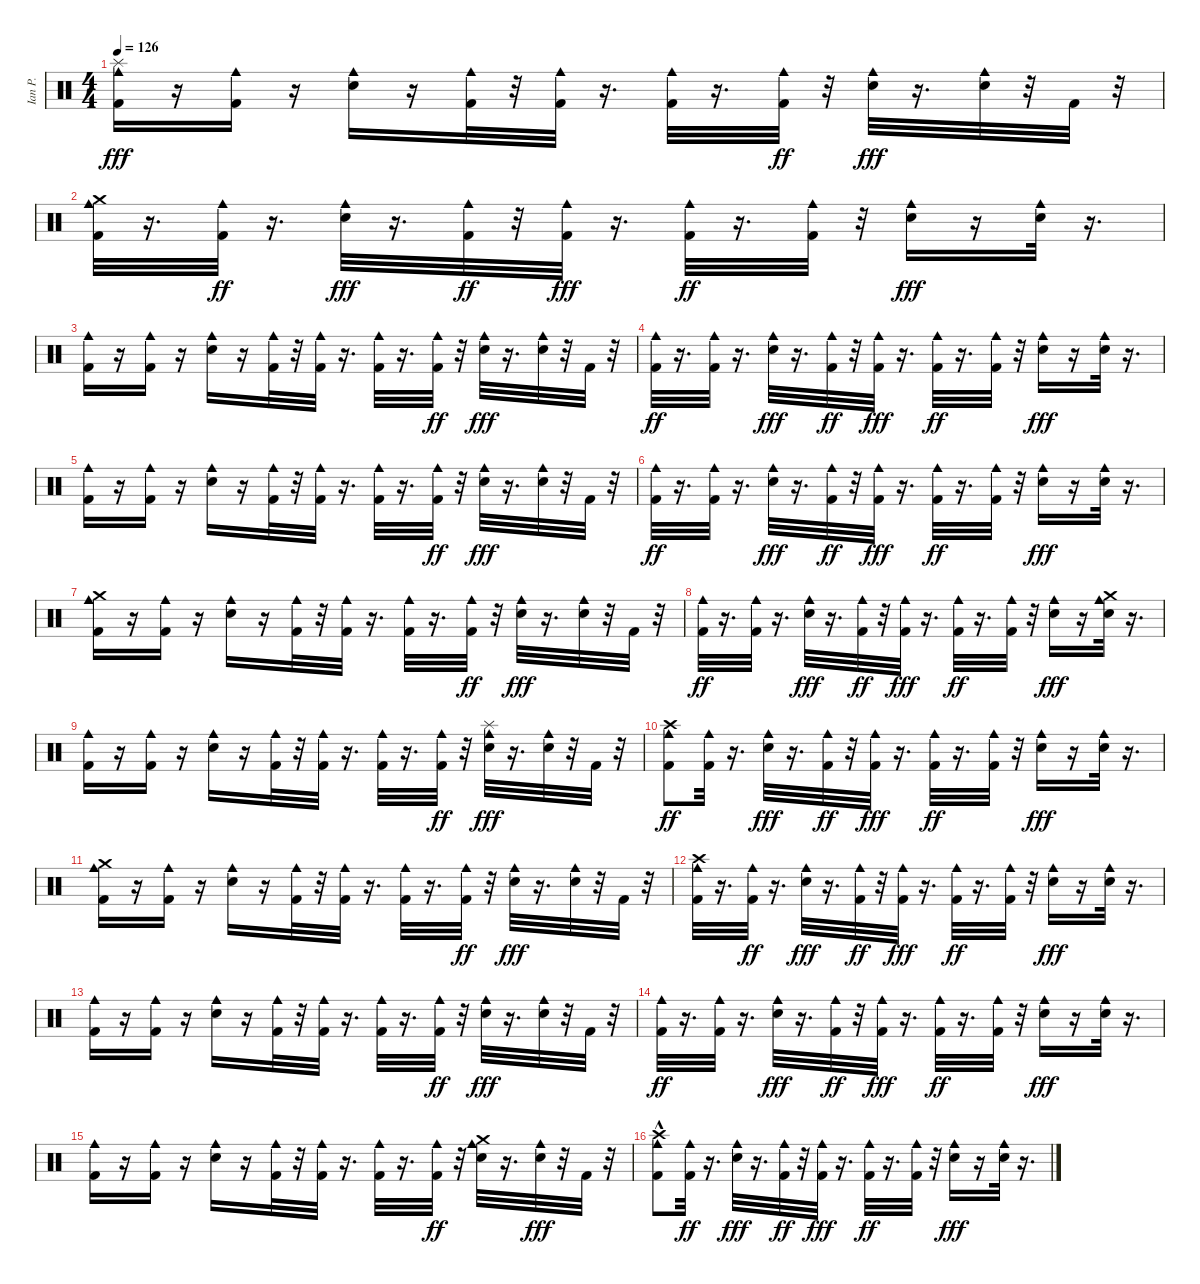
\track ("Ian P." "Ian P.") {instrument percussion}
\staff {score}
\articulation defaults
\ts (4 4)
\tempo 126
\clef neutral
\ks c
("Cowbell medium (hit)" "Splash (hit)" "Kick (hit) 2").16{dy fff} r.16 ("Cowbell medium (hit)" "Kick (hit) 2").16 r.16 ("Cowbell medium (hit)" "Snare (hit) 2").16 r.16 ("Cowbell medium (hit)" "Kick (hit) 2").32 r.32 ("Cowbell medium (hit)" "Kick (hit) 2").32 r.16{d} ("Kick (hit) 2" "Cowbell medium (hit)").32 r.16{d} ("Kick (hit) 2" "Cowbell medium (hit)").32{dy ff} r.32 ("Snare (hit) 2" "Cowbell medium (hit)").32{dy fff} r.16{d} ("Snare (hit) 2" "Cowbell medium (hit)").32 r.32 "Kick (hit) 2".32 r.32 |
("Kick (hit) 2" "Cowbell medium (hit)" "Crash medium (hit)").32 r.16{d} ("Kick (hit) 2" "Cowbell medium (hit)").32{dy ff} r.16{d} ("Cowbell medium (hit)" "Snare (hit) 2").32{dy fff} r.16{d} ("Cowbell medium (hit)" "Kick (hit) 2").32{dy ff} r.32 ("Cowbell medium (hit)" "Kick (hit) 2").32{dy fff} r.16{d} ("Kick (hit) 2" "Cowbell medium (hit)").32{dy ff} r.16{d} ("Cowbell medium (hit)" "Kick (hit) 2").32 r.32 ("Cowbell medium (hit)" "Snare (hit) 2").16{dy fff} r.16 ("Cowbell medium (hit)" "Snare (hit) 2").32 r.16{d} |
("Cowbell medium (hit)" "Kick (hit) 2").16 r.16 ("Cowbell medium (hit)" "Kick (hit) 2").16 r.16 ("Cowbell medium (hit)" "Snare (hit) 2").16 r.16 ("Cowbell medium (hit)" "Kick (hit) 2").32 r.32 ("Cowbell medium (hit)" "Kick (hit) 2").32 r.16{d} ("Kick (hit) 2" "Cowbell medium (hit)").32 r.16{d} ("Kick (hit) 2" "Cowbell medium (hit)").32{dy ff} r.32 ("Snare (hit) 2" "Cowbell medium (hit)").32{dy fff} r.16{d} ("Snare (hit) 2" "Cowbell medium (hit)").32 r.32 "Kick (hit) 2".32 r.32 |
("Kick (hit) 2" "Cowbell medium (hit)").32{dy ff} r.16{d} ("Kick (hit) 2" "Cowbell medium (hit)").32 r.16{d} ("Cowbell medium (hit)" "Snare (hit) 2").32{dy fff} r.16{d} ("Cowbell medium (hit)" "Kick (hit) 2").32{dy ff} r.32 ("Cowbell medium (hit)" "Kick (hit) 2").32{dy fff} r.16{d} ("Kick (hit) 2" "Cowbell medium (hit)").32{dy ff} r.16{d} ("Cowbell medium (hit)" "Kick (hit) 2").32 r.32 ("Cowbell medium (hit)" "Snare (hit) 2").16{dy fff} r.16 ("Cowbell medium (hit)" "Snare (hit) 2").32 r.16{d} |
("Cowbell medium (hit)" "Kick (hit) 2").16 r.16 ("Cowbell medium (hit)" "Kick (hit) 2").16 r.16 ("Cowbell medium (hit)" "Snare (hit) 2").16 r.16 ("Cowbell medium (hit)" "Kick (hit) 2").32 r.32 ("Cowbell medium (hit)" "Kick (hit) 2").32 r.16{d} ("Kick (hit) 2" "Cowbell medium (hit)").32 r.16{d} ("Kick (hit) 2" "Cowbell medium (hit)").32{dy ff} r.32 ("Snare (hit) 2" "Cowbell medium (hit)").32{dy fff} r.16{d} ("Snare (hit) 2" "Cowbell medium (hit)").32 r.32 "Kick (hit) 2".32 r.32 |
("Kick (hit) 2" "Cowbell medium (hit)").32{dy ff} r.16{d} ("Kick (hit) 2" "Cowbell medium (hit)").32 r.16{d} ("Cowbell medium (hit)" "Snare (hit) 2").32{dy fff} r.16{d} ("Cowbell medium (hit)" "Kick (hit) 2").32{dy ff} r.32 ("Cowbell medium (hit)" "Kick (hit) 2").32{dy fff} r.16{d} ("Kick (hit) 2" "Cowbell medium (hit)").32{dy ff} r.16{d} ("Cowbell medium (hit)" "Kick (hit) 2").32 r.32 ("Cowbell medium (hit)" "Snare (hit) 2").16{dy fff} r.16 ("Cowbell medium (hit)" "Snare (hit) 2").32 r.16{d} |
("Cowbell medium (hit)" "Crash medium (hit)" "Kick (hit) 2").16 r.16 ("Cowbell medium (hit)" "Kick (hit) 2").16 r.16 ("Cowbell medium (hit)" "Snare (hit) 2").16 r.16 ("Cowbell medium (hit)" "Kick (hit) 2").32 r.32 ("Cowbell medium (hit)" "Kick (hit) 2").32 r.16{d} ("Kick (hit) 2" "Cowbell medium (hit)").32 r.16{d} ("Kick (hit) 2" "Cowbell medium (hit)").32{dy ff} r.32 ("Snare (hit) 2" "Cowbell medium (hit)").32{dy fff} r.16{d} ("Snare (hit) 2" "Cowbell medium (hit)").32 r.32 "Kick (hit) 2".32 r.32 |
("Kick (hit) 2" "Cowbell medium (hit)").32{dy ff} r.16{d} ("Kick (hit) 2" "Cowbell medium (hit)").32 r.16{d} ("Cowbell medium (hit)" "Snare (hit) 2").32{dy fff} r.16{d} ("Cowbell medium (hit)" "Kick (hit) 2").32{dy ff} r.32 ("Cowbell medium (hit)" "Kick (hit) 2").32{dy fff} r.16{d} ("Kick (hit) 2" "Cowbell medium (hit)").32{dy ff} r.16{d} ("Cowbell medium (hit)" "Kick (hit) 2").32 r.32 ("Cowbell medium (hit)" "Snare (hit) 2").16{dy fff} r.16 ("Crash medium (hit)" "Cowbell medium (hit)" "Snare (hit) 2").32 r.16{d} |
("Cowbell medium (hit)" "Kick (hit) 2").16 r.16 ("Cowbell medium (hit)" "Kick (hit) 2").16 r.16 ("Cowbell medium (hit)" "Snare (hit) 2").16 r.16 ("Cowbell medium (hit)" "Kick (hit) 2").32 r.32 ("Cowbell medium (hit)" "Kick (hit) 2").32 r.16{d} ("Kick (hit) 2" "Cowbell medium (hit)").32 r.16{d} ("Kick (hit) 2" "Cowbell medium (hit)").32{dy ff} r.32 ("Snare (hit) 2" "Cowbell medium (hit)" "Splash (hit)").32{dy fff} r.16{d} ("Snare (hit) 2" "Cowbell medium (hit)").32 r.32 "Kick (hit) 2".32 r.32 |
("Kick (hit) 2" "Crash high (hit)" "Cowbell medium (hit)").8{dy ff} ("Kick (hit) 2" "Cowbell medium (hit)").32 r.16{d} ("Cowbell medium (hit)" "Snare (hit) 2").32{dy fff} r.16{d} ("Cowbell medium (hit)" "Kick (hit) 2").32{dy ff} r.32 ("Cowbell medium (hit)" "Kick (hit) 2").32{dy fff} r.16{d} ("Kick (hit) 2" "Cowbell medium (hit)").32{dy ff} r.16{d} ("Cowbell medium (hit)" "Kick (hit) 2").32 r.32 ("Cowbell medium (hit)" "Snare (hit) 2").16{dy fff} r.16 ("Cowbell medium (hit)" "Snare (hit) 2").32 r.16{d} |
("Cowbell medium (hit)" "Crash medium (hit)" "Kick (hit) 2").16 r.16 ("Cowbell medium (hit)" "Kick (hit) 2").16 r.16 ("Cowbell medium (hit)" "Snare (hit) 2").16 r.16 ("Cowbell medium (hit)" "Kick (hit) 2").32 r.32 ("Cowbell medium (hit)" "Kick (hit) 2").32 r.16{d} ("Kick (hit) 2" "Cowbell medium (hit)").32 r.16{d} ("Kick (hit) 2" "Cowbell medium (hit)").32{dy ff} r.32 ("Snare (hit) 2" "Cowbell medium (hit)").32{dy fff} r.16{d} ("Snare (hit) 2" "Cowbell medium (hit)").32 r.32 "Kick (hit) 2".32 r.32 |
("Kick (hit) 2" "Cowbell medium (hit)" "Crash high (hit)").32 r.16{d} ("Kick (hit) 2" "Cowbell medium (hit)").32{dy ff} r.16{d} ("Cowbell medium (hit)" "Snare (hit) 2").32{dy fff} r.16{d} ("Cowbell medium (hit)" "Kick (hit) 2").32{dy ff} r.32 ("Cowbell medium (hit)" "Kick (hit) 2").32{dy fff} r.16{d} ("Kick (hit) 2" "Cowbell medium (hit)").32{dy ff} r.16{d} ("Cowbell medium (hit)" "Kick (hit) 2").32 r.32 ("Cowbell medium (hit)" "Snare (hit) 2").16{dy fff} r.16 ("Cowbell medium (hit)" "Snare (hit) 2").32 r.16{d} |
("Cowbell medium (hit)" "Kick (hit) 2").16 r.16 ("Cowbell medium (hit)" "Kick (hit) 2").16 r.16 ("Cowbell medium (hit)" "Snare (hit) 2").16 r.16 ("Cowbell medium (hit)" "Kick (hit) 2").32 r.32 ("Cowbell medium (hit)" "Kick (hit) 2").32 r.16{d} ("Kick (hit) 2" "Cowbell medium (hit)").32 r.16{d} ("Kick (hit) 2" "Cowbell medium (hit)").32{dy ff} r.32 ("Snare (hit) 2" "Cowbell medium (hit)").32{dy fff} r.16{d} ("Snare (hit) 2" "Cowbell medium (hit)").32 r.32 "Kick (hit) 2".32 r.32 |
("Kick (hit) 2" "Cowbell medium (hit)").32{dy ff} r.16{d} ("Kick (hit) 2" "Cowbell medium (hit)").32 r.16{d} ("Cowbell medium (hit)" "Snare (hit) 2").32{dy fff} r.16{d} ("Cowbell medium (hit)" "Kick (hit) 2").32{dy ff} r.32 ("Cowbell medium (hit)" "Kick (hit) 2").32{dy fff} r.16{d} ("Kick (hit) 2" "Cowbell medium (hit)").32{dy ff} r.16{d} ("Cowbell medium (hit)" "Kick (hit) 2").32 r.32 ("Cowbell medium (hit)" "Snare (hit) 2").16{dy fff} r.16 ("Cowbell medium (hit)" "Snare (hit) 2").32 r.16{d} |
("Cowbell medium (hit)" "Kick (hit) 2").16 r.16 ("Cowbell medium (hit)" "Kick (hit) 2").16 r.16 ("Cowbell medium (hit)" "Snare (hit) 2").16 r.16 ("Cowbell medium (hit)" "Kick (hit) 2").32 r.32 ("Cowbell medium (hit)" "Kick (hit) 2").32 r.16{d} ("Kick (hit) 2" "Cowbell medium (hit)").32 r.16{d} ("Kick (hit) 2" "Cowbell medium (hit)").32{dy ff} r.32 ("Snare (hit) 2" "Cowbell medium (hit)" "Crash medium (hit)").32 r.16{d} ("Snare (hit) 2" "Cowbell medium (hit)").32{dy fff} r.32 "Kick (hit) 2".32 r.32 |
("Kick (hit) 2" "Cowbell medium (hit)" "Crash high (hit)"{hac}).8 ("Kick (hit) 2" "Cowbell medium (hit)").32{dy ff} r.16{d} ("Cowbell medium (hit)" "Snare (hit) 2").32{dy fff} r.16{d} ("Cowbell medium (hit)" "Kick (hit) 2").32{dy ff} r.32 ("Cowbell medium (hit)" "Kick (hit) 2").32{dy fff} r.16{d} ("Kick (hit) 2" "Cowbell medium (hit)").32{dy ff} r.16{d} ("Cowbell medium (hit)" "Kick (hit) 2").32 r.32 ("Cowbell medium (hit)" "Snare (hit) 2").16{dy fff} r.16 ("Cowbell medium (hit)" "Snare (hit) 2").32 r.16{d}
